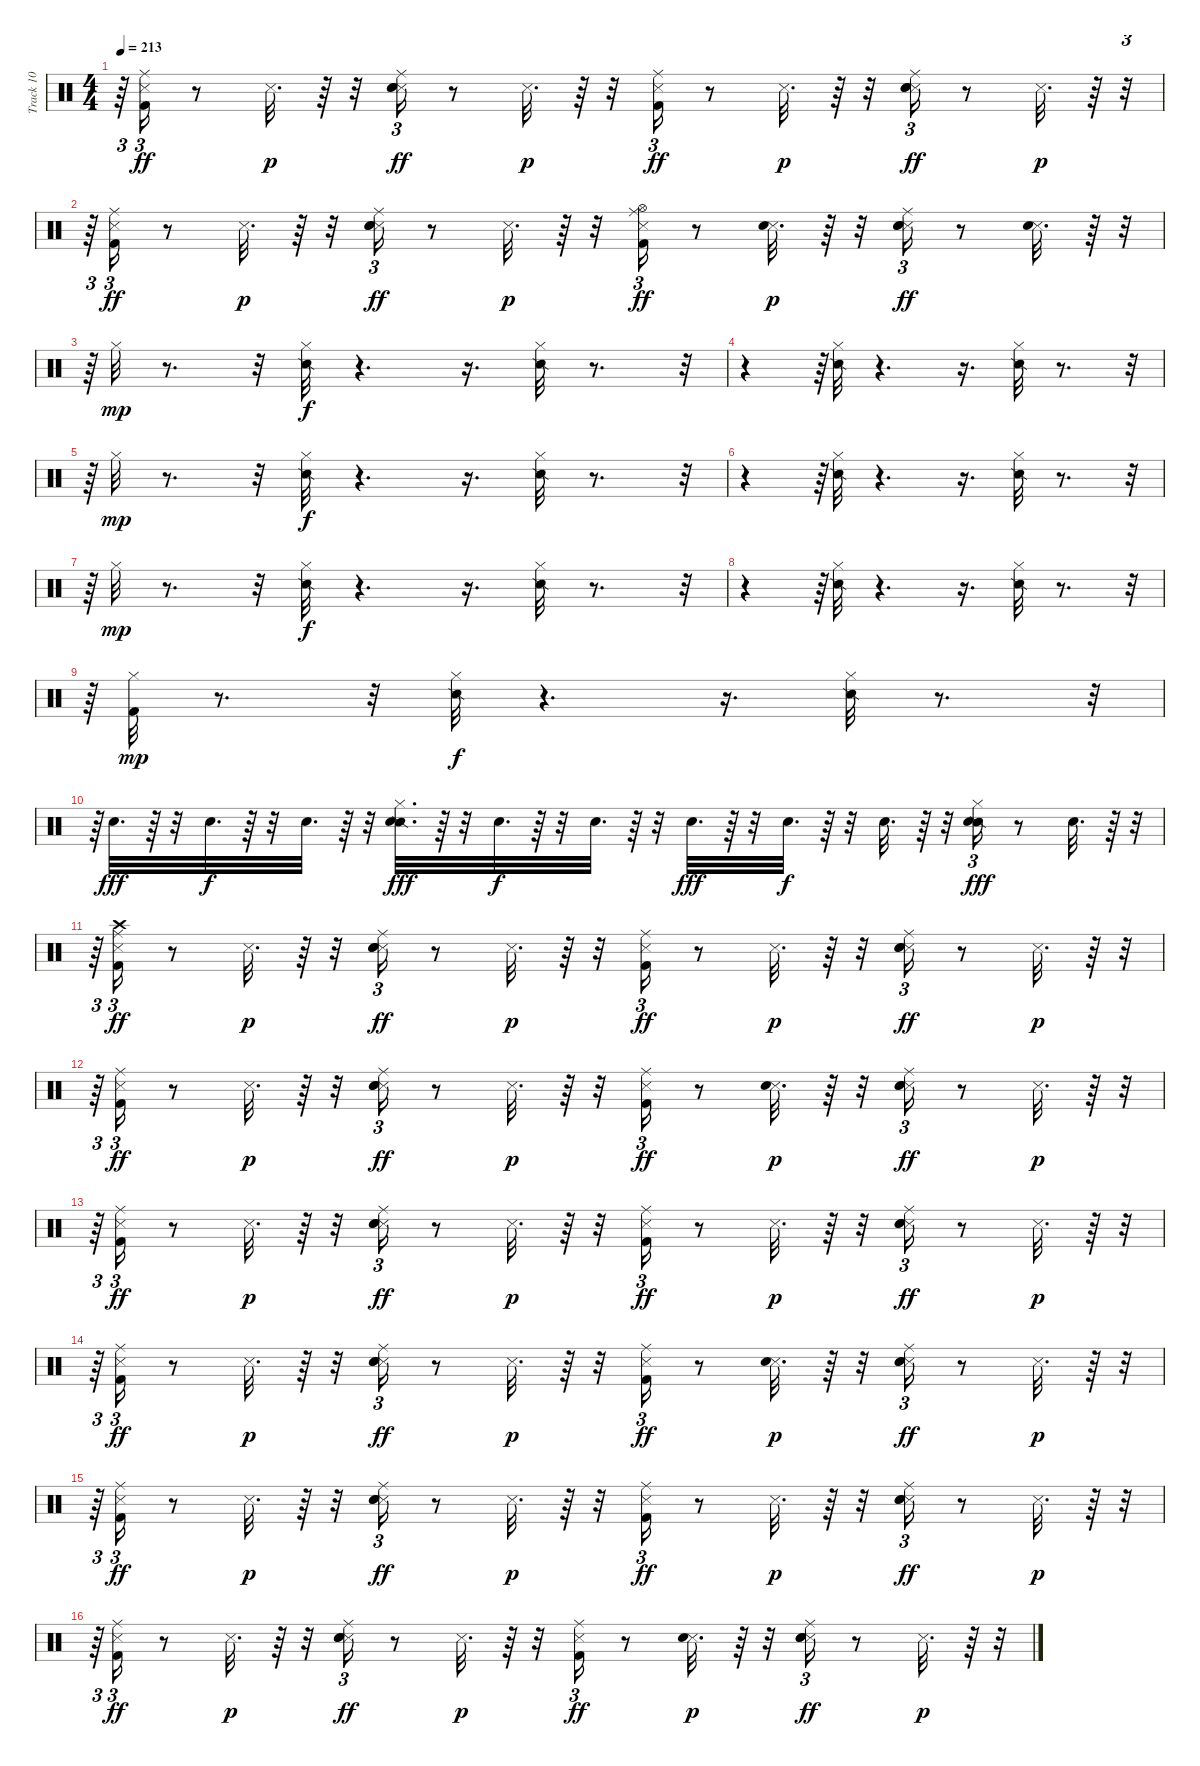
\track ("Track 10" "Track 10") {instrument percussion}
\staff {score}
\articulation defaults
\ts (4 4)
\tempo 213
\clef neutral
\ks c
r.64{tu (3 2) dy p} ("Kick (hit) 2" "Snare (side stick) 3" "Ride (middle)").16{tu (3 2) dy ff} r.8 "Snare (side stick) 3".32{d dy p} r.64 r.32 ("Snare (side stick) 3" "Hand Clap (hit)" "Electric Snare (hit)" "Ride (middle)").16{tu (3 2) dy ff} r.8 "Snare (side stick) 3".32{d dy p} r.64 r.32 ("Kick (hit) 2" "Snare (side stick) 3" "Ride (middle)").16{tu (3 2) dy ff} r.8 "Snare (side stick) 3".32{d dy p} r.64 r.32 ("Snare (side stick) 3" "Hand Clap (hit)" "Electric Snare (hit)" "Ride (middle)").16{tu (3 2) dy ff} r.8 "Snare (side stick) 3".32{d dy p} r.64 r.32{tu (3 2)} |
r.64{tu (3 2)} ("Kick (hit) 2" "Snare (side stick) 3" "Ride (middle)").16{tu (3 2) dy ff} r.8 "Snare (side stick) 3".32{d dy p} r.64 r.32 ("Snare (side stick) 3" "Hand Clap (hit)" "Electric Snare (hit)" "Ride (middle)").16{tu (3 2) dy ff} r.8 "Snare (side stick) 3".32{d dy p} r.64 r.32 ("Kick (hit) 2" "Snare (side stick) 3" "Hi-Hat (open)" "Ride (middle)").16{tu (3 2) dy ff} r.8 ("Snare (side stick) 3" "Electric Snare (hit)").32{d dy p} r.64 r.32 ("Snare (side stick) 3" "Hand Clap (hit)" "Electric Snare (hit)" "Ride (middle)").16{tu (3 2) dy ff} r.8 ("Snare (side stick) 3" "Electric Snare (hit)").32{d} r.64 r.32{tu (3 2)} |
r.64{tu (3 2)} "Hi-Hat (closed)".32{dy mp} r.8{d} r.32 ("Snare (side stick) 2" "Hi-Hat (closed)").32{dy f} r.4{d} r.16{d} ("Snare (side stick) 2" "Hi-Hat (closed)").32 r.8{d} r.32{tu (3 2)} |
r.4 r.64{tu (3 2)} ("Snare (side stick) 2" "Hi-Hat (closed)").32 r.4{d} r.16{d} ("Snare (side stick) 2" "Hi-Hat (closed)").32 r.8{d} r.32{tu (3 2)} |
r.64{tu (3 2)} "Hi-Hat (closed)".32{dy mp} r.8{d} r.32 ("Snare (side stick) 2" "Hi-Hat (closed)").32{dy f} r.4{d} r.16{d} ("Snare (side stick) 2" "Hi-Hat (closed)").32 r.8{d} r.32{tu (3 2)} |
r.4 r.64{tu (3 2)} ("Snare (side stick) 2" "Hi-Hat (closed)").32 r.4{d} r.16{d} ("Snare (side stick) 2" "Hi-Hat (closed)").32 r.8{d} r.32{tu (3 2)} |
r.64{tu (3 2)} "Hi-Hat (closed)".32{dy mp} r.8{d} r.32 ("Snare (side stick) 2" "Hi-Hat (closed)").32{dy f} r.4{d} r.16{d} ("Snare (side stick) 2" "Hi-Hat (closed)").32 r.8{d} r.32{tu (3 2)} |
r.4 r.64{tu (3 2)} ("Snare (side stick) 2" "Hi-Hat (closed)").32 r.4{d} r.16{d} ("Snare (side stick) 2" "Hi-Hat (closed)").32 r.8{d} r.32{tu (3 2)} |
r.64{tu (3 2)} ("Kick (hit) 2" "Hi-Hat (closed)").32{dy mp} r.8{d} r.32 ("Snare (side stick) 2" "Hi-Hat (closed)").32{dy f} r.4{d} r.16{d} ("Snare (side stick) 2" "Hi-Hat (closed)").32 r.8{d} r.32{tu (3 2)} |
r.64{tu (3 2)} "Electric Snare (hit)".32{d dy fff} r.64 r.32 "Electric Snare (hit)".32{d dy f} r.64 r.32 "Electric Snare (hit)".32{d} r.64 r.32 ("Snare (side stick) 2" "Electric Snare (hit)" "Hi-Hat (closed)").32{d dy fff} r.64 r.32 "Electric Snare (hit)".32{d dy f} r.64 r.32 "Electric Snare (hit)".32{d} r.64 r.32 "Electric Snare (hit)".32{d dy fff} r.64 r.32 "Electric Snare (hit)".32{d dy f} r.64 r.32 "Electric Snare (hit)".32{d} r.64 r.32 ("Snare (side stick) 2" "Electric Snare (hit)" "Hi-Hat (closed)").16{tu (3 2) dy fff} r.8 "Electric Snare (hit)".32{d} r.64 r.32{tu (3 2)} |
r.64{tu (3 2)} ("Kick (hit) 2" "Snare (side stick) 3" "Crash high (hit)" "Ride (middle)").16{tu (3 2) dy ff} r.8 "Snare (side stick) 3".32{d dy p} r.64 r.32 ("Snare (side stick) 3" "Hand Clap (hit)" "Electric Snare (hit)" "Ride (middle)").16{tu (3 2) dy ff} r.8 "Snare (side stick) 3".32{d dy p} r.64 r.32 ("Kick (hit) 2" "Snare (side stick) 3" "Ride (middle)").16{tu (3 2) dy ff} r.8 "Snare (side stick) 3".32{d dy p} r.64 r.32 ("Snare (side stick) 3" "Hand Clap (hit)" "Electric Snare (hit)" "Ride (middle)").16{tu (3 2) dy ff} r.8 "Snare (side stick) 3".32{d dy p} r.64 r.32{tu (3 2)} |
r.64{tu (3 2)} ("Kick (hit) 2" "Snare (side stick) 3" "Ride (middle)").16{tu (3 2) dy ff} r.8 "Snare (side stick) 3".32{d dy p} r.64 r.32 ("Snare (side stick) 3" "Hand Clap (hit)" "Electric Snare (hit)" "Ride (middle)").16{tu (3 2) dy ff} r.8 "Snare (side stick) 3".32{d dy p} r.64 r.32 ("Kick (hit) 2" "Snare (side stick) 3" "Ride (middle)").16{tu (3 2) dy ff} r.8 ("Snare (side stick) 3" "Electric Snare (hit)").32{d dy p} r.64 r.32 ("Snare (side stick) 3" "Hand Clap (hit)" "Electric Snare (hit)" "Ride (middle)").16{tu (3 2) dy ff} r.8 "Snare (side stick) 3".32{d dy p} r.64 r.32{tu (3 2)} |
r.64{tu (3 2)} ("Kick (hit) 2" "Snare (side stick) 3" "Ride (middle)").16{tu (3 2) dy ff} r.8 "Snare (side stick) 3".32{d dy p} r.64 r.32 ("Snare (side stick) 3" "Hand Clap (hit)" "Electric Snare (hit)" "Ride (middle)").16{tu (3 2) dy ff} r.8 "Snare (side stick) 3".32{d dy p} r.64 r.32 ("Kick (hit) 2" "Snare (side stick) 3" "Ride (middle)").16{tu (3 2) dy ff} r.8 "Snare (side stick) 3".32{d dy p} r.64 r.32 ("Snare (side stick) 3" "Hand Clap (hit)" "Electric Snare (hit)" "Ride (middle)").16{tu (3 2) dy ff} r.8 "Snare (side stick) 3".32{d dy p} r.64 r.32{tu (3 2)} |
r.64{tu (3 2)} ("Kick (hit) 2" "Snare (side stick) 3" "Ride (middle)").16{tu (3 2) dy ff} r.8 "Snare (side stick) 3".32{d dy p} r.64 r.32 ("Snare (side stick) 3" "Hand Clap (hit)" "Electric Snare (hit)" "Ride (middle)").16{tu (3 2) dy ff} r.8 "Snare (side stick) 3".32{d dy p} r.64 r.32 ("Kick (hit) 2" "Snare (side stick) 3" "Ride (middle)").16{tu (3 2) dy ff} r.8 ("Snare (side stick) 3" "Electric Snare (hit)").32{d dy p} r.64 r.32 ("Snare (side stick) 3" "Hand Clap (hit)" "Electric Snare (hit)" "Ride (middle)").16{tu (3 2) dy ff} r.8 "Snare (side stick) 3".32{d dy p} r.64 r.32{tu (3 2)} |
r.64{tu (3 2)} ("Kick (hit) 2" "Snare (side stick) 3" "Ride (middle)").16{tu (3 2) dy ff} r.8 "Snare (side stick) 3".32{d dy p} r.64 r.32 ("Snare (side stick) 3" "Hand Clap (hit)" "Electric Snare (hit)" "Ride (middle)").16{tu (3 2) dy ff} r.8 "Snare (side stick) 3".32{d dy p} r.64 r.32 ("Kick (hit) 2" "Snare (side stick) 3" "Ride (middle)").16{tu (3 2) dy ff} r.8 "Snare (side stick) 3".32{d dy p} r.64 r.32 ("Snare (side stick) 3" "Hand Clap (hit)" "Electric Snare (hit)" "Ride (middle)").16{tu (3 2) dy ff} r.8 "Snare (side stick) 3".32{d dy p} r.64 r.32{tu (3 2)} |
r.64{tu (3 2)} ("Kick (hit) 2" "Snare (side stick) 3" "Ride (middle)").16{tu (3 2) dy ff} r.8 "Snare (side stick) 3".32{d dy p} r.64 r.32 ("Snare (side stick) 3" "Hand Clap (hit)" "Electric Snare (hit)" "Ride (middle)").16{tu (3 2) dy ff} r.8 "Snare (side stick) 3".32{d dy p} r.64 r.32 ("Kick (hit) 2" "Snare (side stick) 3" "Ride (middle)").16{tu (3 2) dy ff} r.8 ("Snare (side stick) 3" "Electric Snare (hit)").32{d dy p} r.64 r.32 ("Snare (side stick) 3" "Hand Clap (hit)" "Electric Snare (hit)" "Ride (middle)").16{tu (3 2) dy ff} r.8 "Snare (side stick) 3".32{d dy p} r.64 r.32{tu (3 2)}
